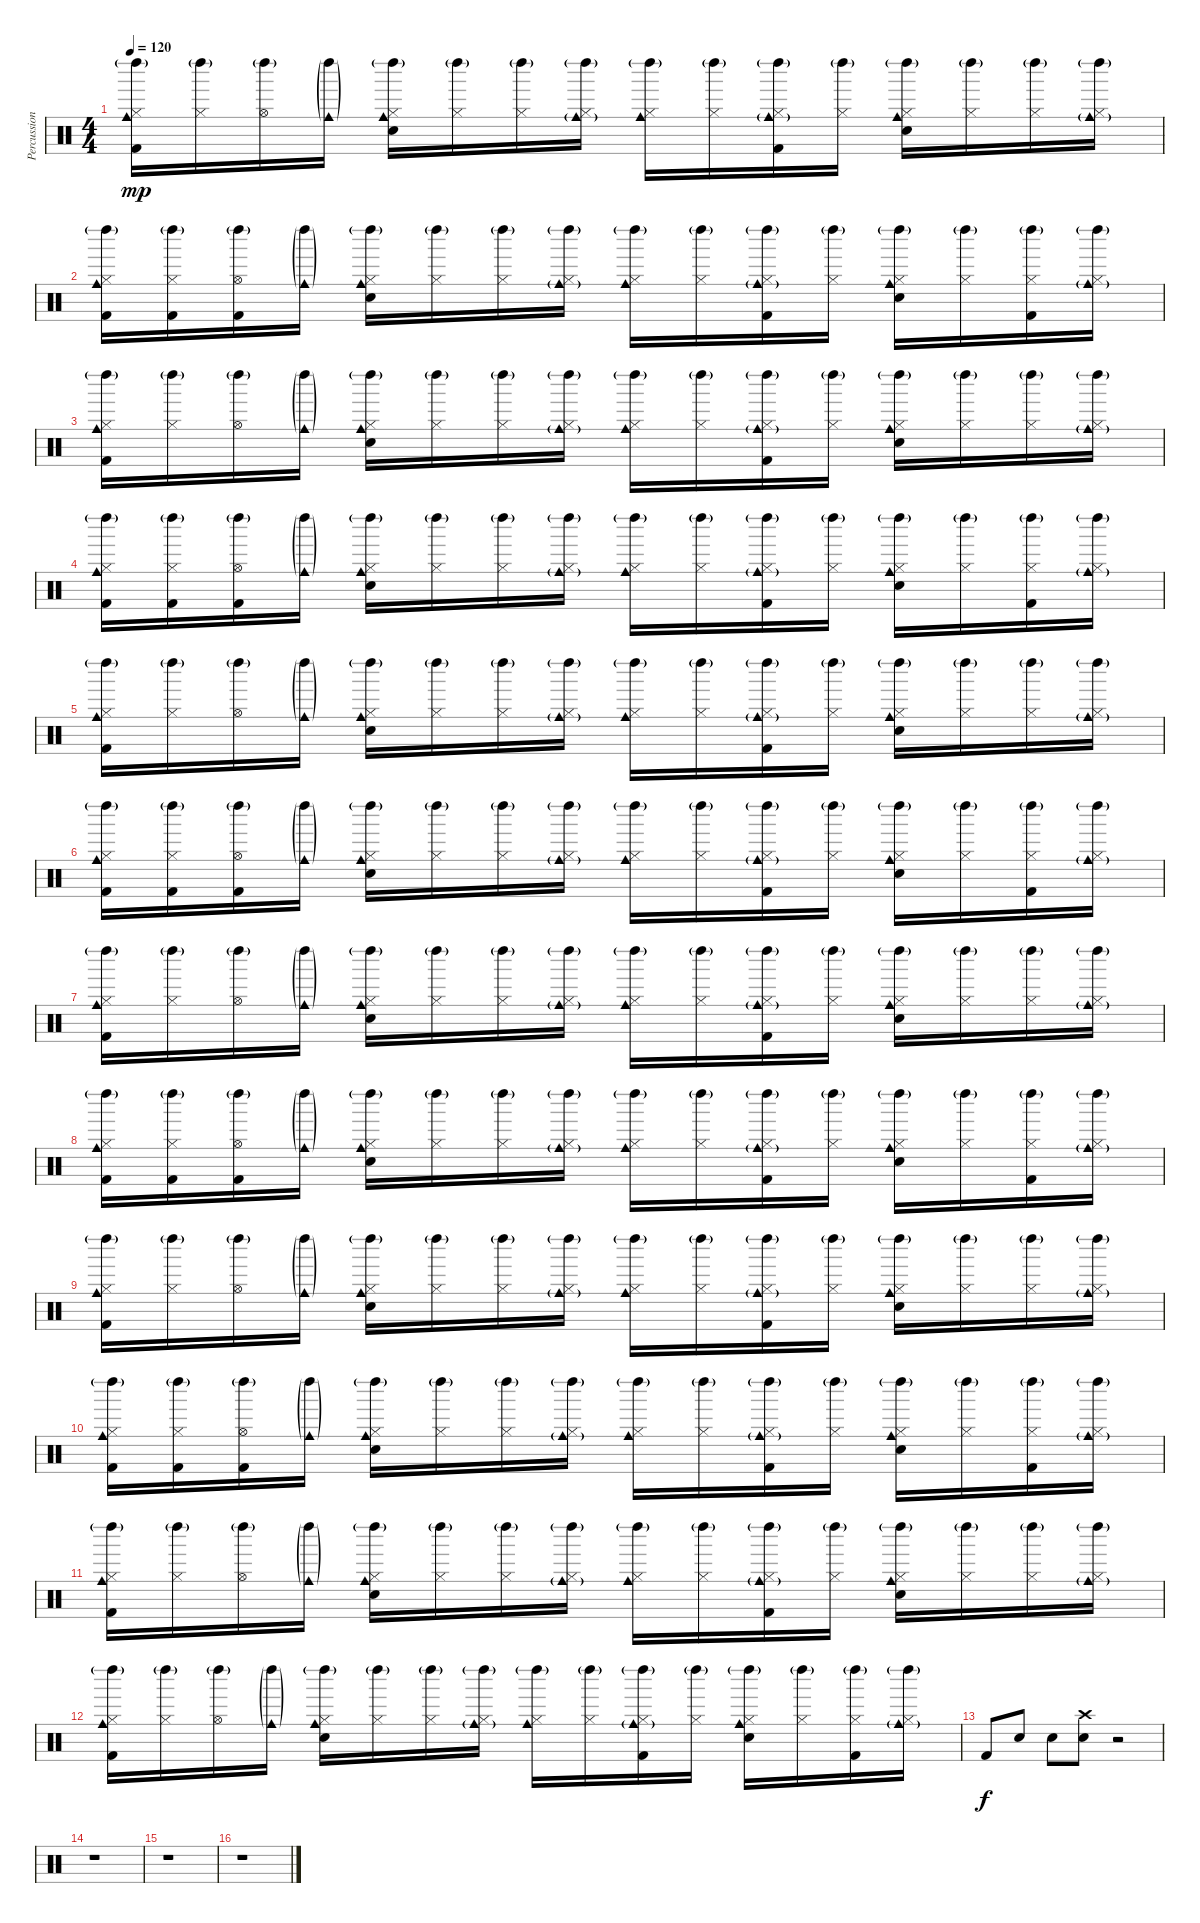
\track ("Percussion" "Percussion") {instrument percussion}
\staff {score}
\articulation defaults
\ts (4 4)
\tempo 120
\clef neutral
\ks c
("Kick (hit) 2" "Hi-Hat (closed)" "Cowbell medium (hit)" "Left Maraca (hit)"{g}).16{dy mp} ("Hi-Hat (closed)" "Left Maraca (hit)"{g}).16 ("Hi-Hat (open)" "Left Maraca (hit)"{g}).16 ("Cowbell medium (hit)"{g} "Left Maraca (hit)"{g}).16 ("Electric Snare (hit)" "Hi-Hat (closed)" "Cowbell medium (hit)" "Left Maraca (hit)"{g}).16 ("Hi-Hat (closed)" "Left Maraca (hit)"{g}).16 ("Hi-Hat (closed)" "Left Maraca (hit)"{g}).16 ("Hi-Hat (closed)" "Cowbell medium (hit)"{g} "Left Maraca (hit)"{g}).16 ("Hi-Hat (closed)" "Cowbell medium (hit)" "Left Maraca (hit)"{g}).16 ("Hi-Hat (closed)" "Left Maraca (hit)"{g}).16 ("Kick (hit) 2" "Hi-Hat (closed)" "Cowbell medium (hit)"{g} "Left Maraca (hit)"{g}).16 ("Hi-Hat (closed)" "Left Maraca (hit)"{g}).16 ("Electric Snare (hit)" "Hi-Hat (closed)" "Cowbell medium (hit)" "Left Maraca (hit)"{g}).16 ("Hi-Hat (closed)" "Left Maraca (hit)"{g}).16 ("Hi-Hat (closed)" "Left Maraca (hit)"{g}).16 ("Hi-Hat (closed)" "Cowbell medium (hit)"{g} "Left Maraca (hit)"{g}).16 |
("Kick (hit) 2" "Hi-Hat (closed)" "Cowbell medium (hit)" "Left Maraca (hit)"{g}).16 ("Kick (hit) 2" "Hi-Hat (closed)" "Left Maraca (hit)"{g}).16 ("Kick (hit) 2" "Hi-Hat (open)" "Left Maraca (hit)"{g}).16 ("Cowbell medium (hit)"{g} "Left Maraca (hit)"{g}).16 ("Electric Snare (hit)" "Hi-Hat (closed)" "Cowbell medium (hit)" "Left Maraca (hit)"{g}).16 ("Hi-Hat (closed)" "Left Maraca (hit)"{g}).16 ("Hi-Hat (closed)" "Left Maraca (hit)"{g}).16 ("Hi-Hat (closed)" "Cowbell medium (hit)"{g} "Left Maraca (hit)"{g}).16 ("Hi-Hat (closed)" "Cowbell medium (hit)" "Left Maraca (hit)"{g}).16 ("Hi-Hat (closed)" "Left Maraca (hit)"{g}).16 ("Kick (hit) 2" "Hi-Hat (closed)" "Cowbell medium (hit)"{g} "Left Maraca (hit)"{g}).16 ("Hi-Hat (closed)" "Left Maraca (hit)"{g}).16 ("Electric Snare (hit)" "Hi-Hat (closed)" "Cowbell medium (hit)" "Left Maraca (hit)"{g}).16 ("Hi-Hat (closed)" "Left Maraca (hit)"{g}).16 ("Kick (hit) 2" "Hi-Hat (closed)" "Left Maraca (hit)"{g}).16 ("Hi-Hat (closed)" "Cowbell medium (hit)"{g} "Left Maraca (hit)"{g}).16 |
("Kick (hit) 2" "Hi-Hat (closed)" "Cowbell medium (hit)" "Left Maraca (hit)"{g}).16 ("Hi-Hat (closed)" "Left Maraca (hit)"{g}).16 ("Hi-Hat (open)" "Left Maraca (hit)"{g}).16 ("Cowbell medium (hit)"{g} "Left Maraca (hit)"{g}).16 ("Electric Snare (hit)" "Hi-Hat (closed)" "Cowbell medium (hit)" "Left Maraca (hit)"{g}).16 ("Hi-Hat (closed)" "Left Maraca (hit)"{g}).16 ("Hi-Hat (closed)" "Left Maraca (hit)"{g}).16 ("Hi-Hat (closed)" "Cowbell medium (hit)"{g} "Left Maraca (hit)"{g}).16 ("Hi-Hat (closed)" "Cowbell medium (hit)" "Left Maraca (hit)"{g}).16 ("Hi-Hat (closed)" "Left Maraca (hit)"{g}).16 ("Kick (hit) 2" "Hi-Hat (closed)" "Cowbell medium (hit)"{g} "Left Maraca (hit)"{g}).16 ("Hi-Hat (closed)" "Left Maraca (hit)"{g}).16 ("Electric Snare (hit)" "Hi-Hat (closed)" "Cowbell medium (hit)" "Left Maraca (hit)"{g}).16 ("Hi-Hat (closed)" "Left Maraca (hit)"{g}).16 ("Hi-Hat (closed)" "Left Maraca (hit)"{g}).16 ("Hi-Hat (closed)" "Cowbell medium (hit)"{g} "Left Maraca (hit)"{g}).16 |
("Kick (hit) 2" "Hi-Hat (closed)" "Cowbell medium (hit)" "Left Maraca (hit)"{g}).16 ("Kick (hit) 2" "Hi-Hat (closed)" "Left Maraca (hit)"{g}).16 ("Kick (hit) 2" "Hi-Hat (open)" "Left Maraca (hit)"{g}).16 ("Cowbell medium (hit)"{g} "Left Maraca (hit)"{g}).16 ("Electric Snare (hit)" "Hi-Hat (closed)" "Cowbell medium (hit)" "Left Maraca (hit)"{g}).16 ("Hi-Hat (closed)" "Left Maraca (hit)"{g}).16 ("Hi-Hat (closed)" "Left Maraca (hit)"{g}).16 ("Hi-Hat (closed)" "Cowbell medium (hit)"{g} "Left Maraca (hit)"{g}).16 ("Hi-Hat (closed)" "Cowbell medium (hit)" "Left Maraca (hit)"{g}).16 ("Hi-Hat (closed)" "Left Maraca (hit)"{g}).16 ("Kick (hit) 2" "Hi-Hat (closed)" "Cowbell medium (hit)"{g} "Left Maraca (hit)"{g}).16 ("Hi-Hat (closed)" "Left Maraca (hit)"{g}).16 ("Electric Snare (hit)" "Hi-Hat (closed)" "Cowbell medium (hit)" "Left Maraca (hit)"{g}).16 ("Hi-Hat (closed)" "Left Maraca (hit)"{g}).16 ("Kick (hit) 2" "Hi-Hat (closed)" "Left Maraca (hit)"{g}).16 ("Hi-Hat (closed)" "Cowbell medium (hit)"{g} "Left Maraca (hit)"{g}).16 |
("Kick (hit) 2" "Hi-Hat (closed)" "Cowbell medium (hit)" "Left Maraca (hit)"{g}).16 ("Hi-Hat (closed)" "Left Maraca (hit)"{g}).16 ("Hi-Hat (open)" "Left Maraca (hit)"{g}).16 ("Cowbell medium (hit)"{g} "Left Maraca (hit)"{g}).16 ("Electric Snare (hit)" "Hi-Hat (closed)" "Cowbell medium (hit)" "Left Maraca (hit)"{g}).16 ("Hi-Hat (closed)" "Left Maraca (hit)"{g}).16 ("Hi-Hat (closed)" "Left Maraca (hit)"{g}).16 ("Hi-Hat (closed)" "Cowbell medium (hit)"{g} "Left Maraca (hit)"{g}).16 ("Hi-Hat (closed)" "Cowbell medium (hit)" "Left Maraca (hit)"{g}).16 ("Hi-Hat (closed)" "Left Maraca (hit)"{g}).16 ("Kick (hit) 2" "Hi-Hat (closed)" "Cowbell medium (hit)"{g} "Left Maraca (hit)"{g}).16 ("Hi-Hat (closed)" "Left Maraca (hit)"{g}).16 ("Electric Snare (hit)" "Hi-Hat (closed)" "Cowbell medium (hit)" "Left Maraca (hit)"{g}).16 ("Hi-Hat (closed)" "Left Maraca (hit)"{g}).16 ("Hi-Hat (closed)" "Left Maraca (hit)"{g}).16 ("Hi-Hat (closed)" "Cowbell medium (hit)"{g} "Left Maraca (hit)"{g}).16 |
("Kick (hit) 2" "Hi-Hat (closed)" "Cowbell medium (hit)" "Left Maraca (hit)"{g}).16 ("Kick (hit) 2" "Hi-Hat (closed)" "Left Maraca (hit)"{g}).16 ("Kick (hit) 2" "Hi-Hat (open)" "Left Maraca (hit)"{g}).16 ("Cowbell medium (hit)"{g} "Left Maraca (hit)"{g}).16 ("Electric Snare (hit)" "Hi-Hat (closed)" "Cowbell medium (hit)" "Left Maraca (hit)"{g}).16 ("Hi-Hat (closed)" "Left Maraca (hit)"{g}).16 ("Hi-Hat (closed)" "Left Maraca (hit)"{g}).16 ("Hi-Hat (closed)" "Cowbell medium (hit)"{g} "Left Maraca (hit)"{g}).16 ("Hi-Hat (closed)" "Cowbell medium (hit)" "Left Maraca (hit)"{g}).16 ("Hi-Hat (closed)" "Left Maraca (hit)"{g}).16 ("Kick (hit) 2" "Hi-Hat (closed)" "Cowbell medium (hit)"{g} "Left Maraca (hit)"{g}).16 ("Hi-Hat (closed)" "Left Maraca (hit)"{g}).16 ("Electric Snare (hit)" "Hi-Hat (closed)" "Cowbell medium (hit)" "Left Maraca (hit)"{g}).16 ("Hi-Hat (closed)" "Left Maraca (hit)"{g}).16 ("Kick (hit) 2" "Hi-Hat (closed)" "Left Maraca (hit)"{g}).16 ("Hi-Hat (closed)" "Cowbell medium (hit)"{g} "Left Maraca (hit)"{g}).16 |
("Kick (hit) 2" "Hi-Hat (closed)" "Cowbell medium (hit)" "Left Maraca (hit)"{g}).16 ("Hi-Hat (closed)" "Left Maraca (hit)"{g}).16 ("Hi-Hat (open)" "Left Maraca (hit)"{g}).16 ("Cowbell medium (hit)"{g} "Left Maraca (hit)"{g}).16 ("Electric Snare (hit)" "Hi-Hat (closed)" "Cowbell medium (hit)" "Left Maraca (hit)"{g}).16 ("Hi-Hat (closed)" "Left Maraca (hit)"{g}).16 ("Hi-Hat (closed)" "Left Maraca (hit)"{g}).16 ("Hi-Hat (closed)" "Cowbell medium (hit)"{g} "Left Maraca (hit)"{g}).16 ("Hi-Hat (closed)" "Cowbell medium (hit)" "Left Maraca (hit)"{g}).16 ("Hi-Hat (closed)" "Left Maraca (hit)"{g}).16 ("Kick (hit) 2" "Hi-Hat (closed)" "Cowbell medium (hit)"{g} "Left Maraca (hit)"{g}).16 ("Hi-Hat (closed)" "Left Maraca (hit)"{g}).16 ("Electric Snare (hit)" "Hi-Hat (closed)" "Cowbell medium (hit)" "Left Maraca (hit)"{g}).16 ("Hi-Hat (closed)" "Left Maraca (hit)"{g}).16 ("Hi-Hat (closed)" "Left Maraca (hit)"{g}).16 ("Hi-Hat (closed)" "Cowbell medium (hit)"{g} "Left Maraca (hit)"{g}).16 |
("Kick (hit) 2" "Hi-Hat (closed)" "Cowbell medium (hit)" "Left Maraca (hit)"{g}).16 ("Kick (hit) 2" "Hi-Hat (closed)" "Left Maraca (hit)"{g}).16 ("Kick (hit) 2" "Hi-Hat (open)" "Left Maraca (hit)"{g}).16 ("Cowbell medium (hit)"{g} "Left Maraca (hit)"{g}).16 ("Electric Snare (hit)" "Hi-Hat (closed)" "Cowbell medium (hit)" "Left Maraca (hit)"{g}).16 ("Hi-Hat (closed)" "Left Maraca (hit)"{g}).16 ("Hi-Hat (closed)" "Left Maraca (hit)"{g}).16 ("Hi-Hat (closed)" "Cowbell medium (hit)"{g} "Left Maraca (hit)"{g}).16 ("Hi-Hat (closed)" "Cowbell medium (hit)" "Left Maraca (hit)"{g}).16 ("Hi-Hat (closed)" "Left Maraca (hit)"{g}).16 ("Kick (hit) 2" "Hi-Hat (closed)" "Cowbell medium (hit)"{g} "Left Maraca (hit)"{g}).16 ("Hi-Hat (closed)" "Left Maraca (hit)"{g}).16 ("Electric Snare (hit)" "Hi-Hat (closed)" "Cowbell medium (hit)" "Left Maraca (hit)"{g}).16 ("Hi-Hat (closed)" "Left Maraca (hit)"{g}).16 ("Kick (hit) 2" "Hi-Hat (closed)" "Left Maraca (hit)"{g}).16 ("Hi-Hat (closed)" "Cowbell medium (hit)"{g} "Left Maraca (hit)"{g}).16 |
("Kick (hit) 2" "Hi-Hat (closed)" "Cowbell medium (hit)" "Left Maraca (hit)"{g}).16 ("Hi-Hat (closed)" "Left Maraca (hit)"{g}).16 ("Hi-Hat (open)" "Left Maraca (hit)"{g}).16 ("Cowbell medium (hit)"{g} "Left Maraca (hit)"{g}).16 ("Electric Snare (hit)" "Hi-Hat (closed)" "Cowbell medium (hit)" "Left Maraca (hit)"{g}).16 ("Hi-Hat (closed)" "Left Maraca (hit)"{g}).16 ("Hi-Hat (closed)" "Left Maraca (hit)"{g}).16 ("Hi-Hat (closed)" "Cowbell medium (hit)"{g} "Left Maraca (hit)"{g}).16 ("Hi-Hat (closed)" "Cowbell medium (hit)" "Left Maraca (hit)"{g}).16 ("Hi-Hat (closed)" "Left Maraca (hit)"{g}).16 ("Kick (hit) 2" "Hi-Hat (closed)" "Cowbell medium (hit)"{g} "Left Maraca (hit)"{g}).16 ("Hi-Hat (closed)" "Left Maraca (hit)"{g}).16 ("Electric Snare (hit)" "Hi-Hat (closed)" "Cowbell medium (hit)" "Left Maraca (hit)"{g}).16 ("Hi-Hat (closed)" "Left Maraca (hit)"{g}).16 ("Hi-Hat (closed)" "Left Maraca (hit)"{g}).16 ("Hi-Hat (closed)" "Cowbell medium (hit)"{g} "Left Maraca (hit)"{g}).16 |
("Kick (hit) 2" "Hi-Hat (closed)" "Cowbell medium (hit)" "Left Maraca (hit)"{g}).16 ("Kick (hit) 2" "Hi-Hat (closed)" "Left Maraca (hit)"{g}).16 ("Kick (hit) 2" "Hi-Hat (open)" "Left Maraca (hit)"{g}).16 ("Cowbell medium (hit)"{g} "Left Maraca (hit)"{g}).16 ("Electric Snare (hit)" "Hi-Hat (closed)" "Cowbell medium (hit)" "Left Maraca (hit)"{g}).16 ("Hi-Hat (closed)" "Left Maraca (hit)"{g}).16 ("Hi-Hat (closed)" "Left Maraca (hit)"{g}).16 ("Hi-Hat (closed)" "Cowbell medium (hit)"{g} "Left Maraca (hit)"{g}).16 ("Hi-Hat (closed)" "Cowbell medium (hit)" "Left Maraca (hit)"{g}).16 ("Hi-Hat (closed)" "Left Maraca (hit)"{g}).16 ("Kick (hit) 2" "Hi-Hat (closed)" "Cowbell medium (hit)"{g} "Left Maraca (hit)"{g}).16 ("Hi-Hat (closed)" "Left Maraca (hit)"{g}).16 ("Electric Snare (hit)" "Hi-Hat (closed)" "Cowbell medium (hit)" "Left Maraca (hit)"{g}).16 ("Hi-Hat (closed)" "Left Maraca (hit)"{g}).16 ("Kick (hit) 2" "Hi-Hat (closed)" "Left Maraca (hit)"{g}).16 ("Hi-Hat (closed)" "Cowbell medium (hit)"{g} "Left Maraca (hit)"{g}).16 |
("Kick (hit) 2" "Hi-Hat (closed)" "Cowbell medium (hit)" "Left Maraca (hit)"{g}).16 ("Hi-Hat (closed)" "Left Maraca (hit)"{g}).16 ("Hi-Hat (open)" "Left Maraca (hit)"{g}).16 ("Cowbell medium (hit)"{g} "Left Maraca (hit)"{g}).16 ("Electric Snare (hit)" "Hi-Hat (closed)" "Cowbell medium (hit)" "Left Maraca (hit)"{g}).16 ("Hi-Hat (closed)" "Left Maraca (hit)"{g}).16 ("Hi-Hat (closed)" "Left Maraca (hit)"{g}).16 ("Hi-Hat (closed)" "Cowbell medium (hit)"{g} "Left Maraca (hit)"{g}).16 ("Hi-Hat (closed)" "Cowbell medium (hit)" "Left Maraca (hit)"{g}).16 ("Hi-Hat (closed)" "Left Maraca (hit)"{g}).16 ("Kick (hit) 2" "Hi-Hat (closed)" "Cowbell medium (hit)"{g} "Left Maraca (hit)"{g}).16 ("Hi-Hat (closed)" "Left Maraca (hit)"{g}).16 ("Electric Snare (hit)" "Hi-Hat (closed)" "Cowbell medium (hit)" "Left Maraca (hit)"{g}).16 ("Hi-Hat (closed)" "Left Maraca (hit)"{g}).16 ("Hi-Hat (closed)" "Left Maraca (hit)"{g}).16 ("Hi-Hat (closed)" "Cowbell medium (hit)"{g} "Left Maraca (hit)"{g}).16 |
("Kick (hit) 2" "Hi-Hat (closed)" "Cowbell medium (hit)" "Left Maraca (hit)"{g}).16 ("Hi-Hat (closed)" "Left Maraca (hit)"{g}).16 ("Hi-Hat (open)" "Left Maraca (hit)"{g}).16 ("Cowbell medium (hit)"{g} "Left Maraca (hit)"{g}).16 ("Electric Snare (hit)" "Hi-Hat (closed)" "Cowbell medium (hit)" "Left Maraca (hit)"{g}).16 ("Hi-Hat (closed)" "Left Maraca (hit)"{g}).16 ("Hi-Hat (closed)" "Left Maraca (hit)"{g}).16 ("Hi-Hat (closed)" "Cowbell medium (hit)"{g} "Left Maraca (hit)"{g}).16 ("Hi-Hat (closed)" "Cowbell medium (hit)" "Left Maraca (hit)"{g}).16 ("Hi-Hat (closed)" "Left Maraca (hit)"{g}).16 ("Kick (hit) 2" "Hi-Hat (closed)" "Cowbell medium (hit)"{g} "Left Maraca (hit)"{g}).16 ("Hi-Hat (closed)" "Left Maraca (hit)"{g}).16 ("Electric Snare (hit)" "Hi-Hat (closed)" "Cowbell medium (hit)" "Left Maraca (hit)"{g}).16 ("Hi-Hat (closed)" "Left Maraca (hit)"{g}).16 ("Kick (hit) 2" "Hi-Hat (closed)" "Left Maraca (hit)"{g}).16 ("Hi-Hat (closed)" "Cowbell medium (hit)"{g} "Left Maraca (hit)"{g}).16 |
"Kick (hit) 2".8{dy f} "Electric Snare (hit)".8 "Electric Snare (hit)".8 ("Electric Snare (hit)" "Crash high (hit)").8 r.2 |
r.1 |
r.1 |
r.1
